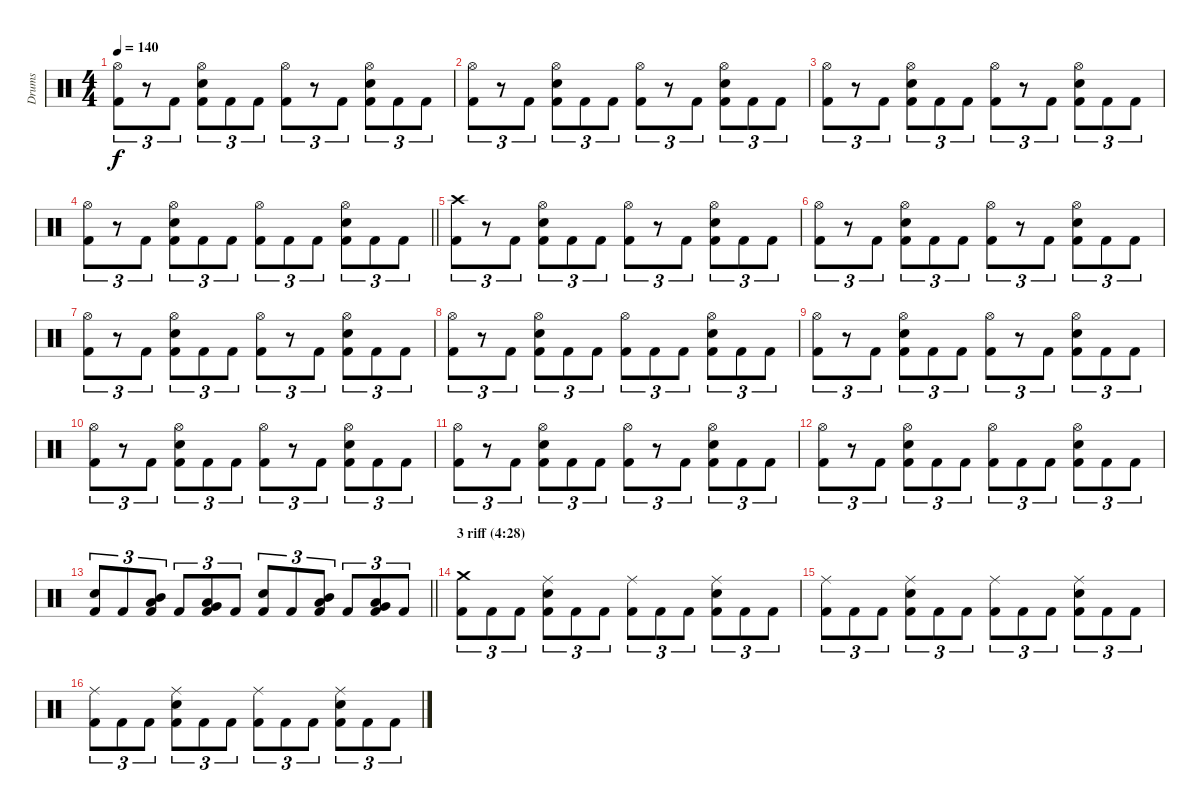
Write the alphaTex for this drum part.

\track ("Drums" "Drums") {instrument percussion}
\staff {score}
\articulation defaults
\ts (4 4)
\tempo 140
\clef neutral
\ks c
("Hi-Hat (open)" "Kick (hit) 2").8{tu (3 2) dy f} r.8{tu (3 2)} "Kick (hit) 2".8{tu (3 2)} ("Hi-Hat (open)" "Snare (hit) 2" "Kick (hit) 2").8{tu (3 2)} "Kick (hit) 2".8{tu (3 2)} "Kick (hit) 2".8{tu (3 2)} ("Hi-Hat (open)" "Kick (hit) 2").8{tu (3 2)} r.8{tu (3 2)} "Kick (hit) 2".8{tu (3 2)} ("Hi-Hat (open)" "Snare (hit) 2" "Kick (hit) 2").8{tu (3 2)} "Kick (hit) 2".8{tu (3 2)} "Kick (hit) 2".8{tu (3 2)} |
("Hi-Hat (open)" "Kick (hit) 2").8{tu (3 2)} r.8{tu (3 2)} "Kick (hit) 2".8{tu (3 2)} ("Hi-Hat (open)" "Snare (hit) 2" "Kick (hit) 2").8{tu (3 2)} "Kick (hit) 2".8{tu (3 2)} "Kick (hit) 2".8{tu (3 2)} ("Hi-Hat (open)" "Kick (hit) 2").8{tu (3 2)} r.8{tu (3 2)} "Kick (hit) 2".8{tu (3 2)} ("Hi-Hat (open)" "Snare (hit) 2" "Kick (hit) 2").8{tu (3 2)} "Kick (hit) 2".8{tu (3 2)} "Kick (hit) 2".8{tu (3 2)} |
("Hi-Hat (open)" "Kick (hit) 2").8{tu (3 2)} r.8{tu (3 2)} "Kick (hit) 2".8{tu (3 2)} ("Hi-Hat (open)" "Snare (hit) 2" "Kick (hit) 2").8{tu (3 2)} "Kick (hit) 2".8{tu (3 2)} "Kick (hit) 2".8{tu (3 2)} ("Hi-Hat (open)" "Kick (hit) 2").8{tu (3 2)} r.8{tu (3 2)} "Kick (hit) 2".8{tu (3 2)} ("Hi-Hat (open)" "Snare (hit) 2" "Kick (hit) 2").8{tu (3 2)} "Kick (hit) 2".8{tu (3 2)} "Kick (hit) 2".8{tu (3 2)} |
\barLineRight lightlight
("Hi-Hat (open)" "Kick (hit) 2").8{tu (3 2)} r.8{tu (3 2)} "Kick (hit) 2".8{tu (3 2)} ("Hi-Hat (open)" "Snare (hit) 2" "Kick (hit) 2").8{tu (3 2)} "Kick (hit) 2".8{tu (3 2)} "Kick (hit) 2".8{tu (3 2)} ("Hi-Hat (open)" "Kick (hit) 2").8{tu (3 2)} "Kick (hit) 2".8{tu (3 2)} "Kick (hit) 2".8{tu (3 2)} ("Hi-Hat (open)" "Snare (hit) 2" "Kick (hit) 2").8{tu (3 2)} "Kick (hit) 2".8{tu (3 2)} "Kick (hit) 2".8{tu (3 2)} |
\section ("" "")
("Crash high (hit)" "Kick (hit) 2").8{tu (3 2)} r.8{tu (3 2)} "Kick (hit) 2".8{tu (3 2)} ("Hi-Hat (open)" "Snare (hit) 2" "Kick (hit) 2").8{tu (3 2)} "Kick (hit) 2".8{tu (3 2)} "Kick (hit) 2".8{tu (3 2)} ("Hi-Hat (open)" "Kick (hit) 2").8{tu (3 2)} r.8{tu (3 2)} "Kick (hit) 2".8{tu (3 2)} ("Hi-Hat (open)" "Snare (hit) 2" "Kick (hit) 2").8{tu (3 2)} "Kick (hit) 2".8{tu (3 2)} "Kick (hit) 2".8{tu (3 2)} |
("Hi-Hat (open)" "Kick (hit) 2").8{tu (3 2)} r.8{tu (3 2)} "Kick (hit) 2".8{tu (3 2)} ("Hi-Hat (open)" "Snare (hit) 2" "Kick (hit) 2").8{tu (3 2)} "Kick (hit) 2".8{tu (3 2)} "Kick (hit) 2".8{tu (3 2)} ("Hi-Hat (open)" "Kick (hit) 2").8{tu (3 2)} r.8{tu (3 2)} "Kick (hit) 2".8{tu (3 2)} ("Hi-Hat (open)" "Snare (hit) 2" "Kick (hit) 2").8{tu (3 2)} "Kick (hit) 2".8{tu (3 2)} "Kick (hit) 2".8{tu (3 2)} |
("Hi-Hat (open)" "Kick (hit) 2").8{tu (3 2)} r.8{tu (3 2)} "Kick (hit) 2".8{tu (3 2)} ("Hi-Hat (open)" "Snare (hit) 2" "Kick (hit) 2").8{tu (3 2)} "Kick (hit) 2".8{tu (3 2)} "Kick (hit) 2".8{tu (3 2)} ("Hi-Hat (open)" "Kick (hit) 2").8{tu (3 2)} r.8{tu (3 2)} "Kick (hit) 2".8{tu (3 2)} ("Hi-Hat (open)" "Snare (hit) 2" "Kick (hit) 2").8{tu (3 2)} "Kick (hit) 2".8{tu (3 2)} "Kick (hit) 2".8{tu (3 2)} |
("Hi-Hat (open)" "Kick (hit) 2").8{tu (3 2)} r.8{tu (3 2)} "Kick (hit) 2".8{tu (3 2)} ("Hi-Hat (open)" "Snare (hit) 2" "Kick (hit) 2").8{tu (3 2)} "Kick (hit) 2".8{tu (3 2)} "Kick (hit) 2".8{tu (3 2)} ("Hi-Hat (open)" "Kick (hit) 2").8{tu (3 2)} "Kick (hit) 2".8{tu (3 2)} "Kick (hit) 2".8{tu (3 2)} ("Hi-Hat (open)" "Snare (hit) 2" "Kick (hit) 2").8{tu (3 2)} "Kick (hit) 2".8{tu (3 2)} "Kick (hit) 2".8{tu (3 2)} |
("Hi-Hat (open)" "Kick (hit) 2").8{tu (3 2)} r.8{tu (3 2)} "Kick (hit) 2".8{tu (3 2)} ("Hi-Hat (open)" "Snare (hit) 2" "Kick (hit) 2").8{tu (3 2)} "Kick (hit) 2".8{tu (3 2)} "Kick (hit) 2".8{tu (3 2)} ("Hi-Hat (open)" "Kick (hit) 2").8{tu (3 2)} r.8{tu (3 2)} "Kick (hit) 2".8{tu (3 2)} ("Hi-Hat (open)" "Snare (hit) 2" "Kick (hit) 2").8{tu (3 2)} "Kick (hit) 2".8{tu (3 2)} "Kick (hit) 2".8{tu (3 2)} |
("Hi-Hat (open)" "Kick (hit) 2").8{tu (3 2)} r.8{tu (3 2)} "Kick (hit) 2".8{tu (3 2)} ("Hi-Hat (open)" "Snare (hit) 2" "Kick (hit) 2").8{tu (3 2)} "Kick (hit) 2".8{tu (3 2)} "Kick (hit) 2".8{tu (3 2)} ("Hi-Hat (open)" "Kick (hit) 2").8{tu (3 2)} r.8{tu (3 2)} "Kick (hit) 2".8{tu (3 2)} ("Hi-Hat (open)" "Snare (hit) 2" "Kick (hit) 2").8{tu (3 2)} "Kick (hit) 2".8{tu (3 2)} "Kick (hit) 2".8{tu (3 2)} |
("Hi-Hat (open)" "Kick (hit) 2").8{tu (3 2)} r.8{tu (3 2)} "Kick (hit) 2".8{tu (3 2)} ("Hi-Hat (open)" "Snare (hit) 2" "Kick (hit) 2").8{tu (3 2)} "Kick (hit) 2".8{tu (3 2)} "Kick (hit) 2".8{tu (3 2)} ("Hi-Hat (open)" "Kick (hit) 2").8{tu (3 2)} r.8{tu (3 2)} "Kick (hit) 2".8{tu (3 2)} ("Hi-Hat (open)" "Snare (hit) 2" "Kick (hit) 2").8{tu (3 2)} "Kick (hit) 2".8{tu (3 2)} "Kick (hit) 2".8{tu (3 2)} |
("Hi-Hat (open)" "Kick (hit) 2").8{tu (3 2)} r.8{tu (3 2)} "Kick (hit) 2".8{tu (3 2)} ("Hi-Hat (open)" "Snare (hit) 2" "Kick (hit) 2").8{tu (3 2)} "Kick (hit) 2".8{tu (3 2)} "Kick (hit) 2".8{tu (3 2)} ("Hi-Hat (open)" "Kick (hit) 2").8{tu (3 2)} "Kick (hit) 2".8{tu (3 2)} "Kick (hit) 2".8{tu (3 2)} ("Hi-Hat (open)" "Snare (hit) 2" "Kick (hit) 2").8{tu (3 2)} "Kick (hit) 2".8{tu (3 2)} "Kick (hit) 2".8{tu (3 2)} |
\barLineRight lightlight
("Snare (hit) 2" "Kick (hit) 2").8{tu (3 2)} "Kick (hit) 2".8{tu (3 2)} ("Mid Tom (hit)" "Low Tom (hit)" "Kick (hit) 2").8{tu (3 2)} "Kick (hit) 2".8{tu (3 2)} ("Low Tom (hit)" "Very Low Tom (hit)" "Kick (hit) 2").8{tu (3 2)} "Kick (hit) 2".8{tu (3 2)} ("Snare (hit) 2" "Kick (hit) 2").8{tu (3 2)} "Kick (hit) 2".8{tu (3 2)} ("Mid Tom (hit)" "Low Tom (hit)" "Kick (hit) 2").8{tu (3 2)} "Kick (hit) 2".8{tu (3 2)} ("Low Tom (hit)" "Very Low Tom (hit)" "Kick (hit) 2").8{tu (3 2)} "Kick (hit) 2".8{tu (3 2)} |
\section ("" "3 riff (4:28)")
("Crash medium (hit)" "Kick (hit) 2").8{tu (3 2)} "Kick (hit) 2".8{tu (3 2)} "Kick (hit) 2".8{tu (3 2)} ("Ride (middle)" "Snare (hit) 2" "Kick (hit) 2").8{tu (3 2)} "Kick (hit) 2".8{tu (3 2)} "Kick (hit) 2".8{tu (3 2)} ("Ride (middle)" "Kick (hit) 2").8{tu (3 2)} "Kick (hit) 2".8{tu (3 2)} "Kick (hit) 2".8{tu (3 2)} ("Ride (middle)" "Snare (hit) 2" "Kick (hit) 2").8{tu (3 2)} "Kick (hit) 2".8{tu (3 2)} "Kick (hit) 2".8{tu (3 2)} |
("Ride (middle)" "Kick (hit) 2").8{tu (3 2)} "Kick (hit) 2".8{tu (3 2)} "Kick (hit) 2".8{tu (3 2)} ("Ride (middle)" "Snare (hit) 2" "Kick (hit) 2").8{tu (3 2)} "Kick (hit) 2".8{tu (3 2)} "Kick (hit) 2".8{tu (3 2)} ("Ride (middle)" "Kick (hit) 2").8{tu (3 2)} "Kick (hit) 2".8{tu (3 2)} "Kick (hit) 2".8{tu (3 2)} ("Ride (middle)" "Snare (hit) 2" "Kick (hit) 2").8{tu (3 2)} "Kick (hit) 2".8{tu (3 2)} "Kick (hit) 2".8{tu (3 2)} |
("Ride (middle)" "Kick (hit) 2").8{tu (3 2)} "Kick (hit) 2".8{tu (3 2)} "Kick (hit) 2".8{tu (3 2)} ("Ride (middle)" "Snare (hit) 2" "Kick (hit) 2").8{tu (3 2)} "Kick (hit) 2".8{tu (3 2)} "Kick (hit) 2".8{tu (3 2)} ("Ride (middle)" "Kick (hit) 2").8{tu (3 2)} "Kick (hit) 2".8{tu (3 2)} "Kick (hit) 2".8{tu (3 2)} ("Ride (middle)" "Snare (hit) 2" "Kick (hit) 2").8{tu (3 2)} "Kick (hit) 2".8{tu (3 2)} "Kick (hit) 2".8{tu (3 2)}
